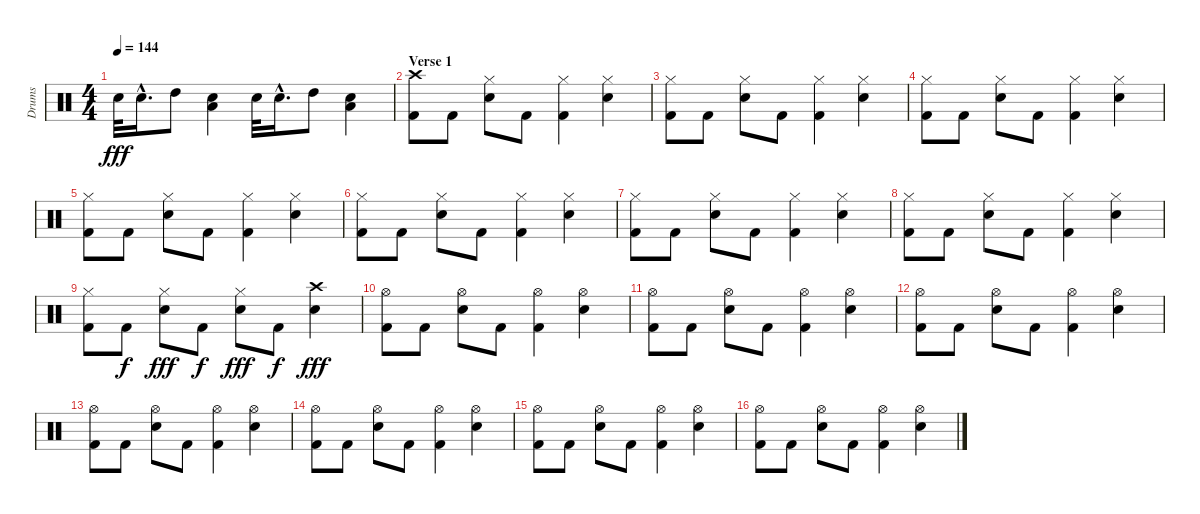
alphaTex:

\track ("Drums" "Drums") {instrument percussion}
\staff {score}
\articulation defaults
\ts (4 4)
\tempo 144
\clef neutral
\ks c "Snare (hit) 2".32{dy fff} "Snare (hit) 2"{hac}.16{d} "High Tom (hit)".8
("Snare (hit) 2" "Low Tom (hit)").4 "Snare (hit) 2".32 "Snare (hit) 2"{hac}.16{d} "High Tom (hit)".8 ("Snare (hit) 2" "Low Tom (hit)").4 |
\section ("" "Verse 1")
("Crash high (hit)" "Kick (hit) 2").8 "Kick (hit) 2".8 ("Hi-Hat (closed)" "Snare (hit) 2").8 "Kick (hit) 2".8 ("Hi-Hat (closed)" "Kick (hit) 2").4 ("Hi-Hat (closed)" "Snare (hit) 2").4 |
("Hi-Hat (closed)" "Kick (hit) 2").8 "Kick (hit) 2".8 ("Hi-Hat (closed)" "Snare (hit) 2").8 "Kick (hit) 2".8 ("Hi-Hat (closed)" "Kick (hit) 2").4 ("Hi-Hat (closed)" "Snare (hit) 2").4 |
("Hi-Hat (closed)" "Kick (hit) 2").8 "Kick (hit) 2".8 ("Hi-Hat (closed)" "Snare (hit) 2").8 "Kick (hit) 2".8 ("Hi-Hat (closed)" "Kick (hit) 2").4 ("Hi-Hat (closed)" "Snare (hit) 2").4 |
("Hi-Hat (closed)" "Kick (hit) 2").8 "Kick (hit) 2".8 ("Hi-Hat (closed)" "Snare (hit) 2").8 "Kick (hit) 2".8 ("Hi-Hat (closed)" "Kick (hit) 2").4 ("Hi-Hat (closed)" "Snare (hit) 2").4 |
("Hi-Hat (closed)" "Kick (hit) 2").8 "Kick (hit) 2".8 ("Hi-Hat (closed)" "Snare (hit) 2").8 "Kick (hit) 2".8 ("Hi-Hat (closed)" "Kick (hit) 2").4 ("Hi-Hat (closed)" "Snare (hit) 2").4 |
("Hi-Hat (closed)" "Kick (hit) 2").8 "Kick (hit) 2".8 ("Hi-Hat (closed)" "Snare (hit) 2").8 "Kick (hit) 2".8 ("Hi-Hat (closed)" "Kick (hit) 2").4 ("Hi-Hat (closed)" "Snare (hit) 2").4 |
("Hi-Hat (closed)" "Kick (hit) 2").8 "Kick (hit) 2".8 ("Hi-Hat (closed)" "Snare (hit) 2").8 "Kick (hit) 2".8 ("Hi-Hat (closed)" "Kick (hit) 2").4 ("Hi-Hat (closed)" "Snare (hit) 2").4 |
("Hi-Hat (closed)" "Kick (hit) 2").8 "Kick (hit) 2".8{dy f} ("Hi-Hat (closed)" "Snare (hit) 2").8{dy fff} "Kick (hit) 2".8{dy f} ("Hi-Hat (closed)" "Snare (hit) 2").8{dy fff} "Kick (hit) 2".8{dy f} ("Crash high (hit)" "Snare (hit) 2").4{dy fff} |
("Hi-Hat (open)" "Kick (hit) 2").8 "Kick (hit) 2".8 ("Hi-Hat (open)" "Snare (hit) 2").8 "Kick (hit) 2".8 ("Hi-Hat (open)" "Kick (hit) 2").4 ("Hi-Hat (open)" "Snare (hit) 2").4 |
("Hi-Hat (open)" "Kick (hit) 2").8 "Kick (hit) 2".8 ("Hi-Hat (open)" "Snare (hit) 2").8 "Kick (hit) 2".8 ("Hi-Hat (open)" "Kick (hit) 2").4 ("Hi-Hat (open)" "Snare (hit) 2").4 |
("Hi-Hat (open)" "Kick (hit) 2").8 "Kick (hit) 2".8 ("Hi-Hat (open)" "Snare (hit) 2").8 "Kick (hit) 2".8 ("Hi-Hat (open)" "Kick (hit) 2").4 ("Hi-Hat (open)" "Snare (hit) 2").4 |
("Hi-Hat (open)" "Kick (hit) 2").8 "Kick (hit) 2".8 ("Hi-Hat (open)" "Snare (hit) 2").8 "Kick (hit) 2".8 ("Hi-Hat (open)" "Kick (hit) 2").4 ("Hi-Hat (open)" "Snare (hit) 2").4 |
("Hi-Hat (open)" "Kick (hit) 2").8 "Kick (hit) 2".8 ("Hi-Hat (open)" "Snare (hit) 2").8 "Kick (hit) 2".8 ("Hi-Hat (open)" "Kick (hit) 2").4 ("Hi-Hat (open)" "Snare (hit) 2").4 |
("Hi-Hat (open)" "Kick (hit) 2").8 "Kick (hit) 2".8 ("Hi-Hat (open)" "Snare (hit) 2").8 "Kick (hit) 2".8 ("Hi-Hat (open)" "Kick (hit) 2").4 ("Hi-Hat (open)" "Snare (hit) 2").4 |
("Hi-Hat (open)" "Kick (hit) 2").8 "Kick (hit) 2".8 ("Hi-Hat (open)" "Snare (hit) 2").8 "Kick (hit) 2".8 ("Hi-Hat (open)" "Kick (hit) 2").4 ("Hi-Hat (open)" "Snare (hit) 2").4
